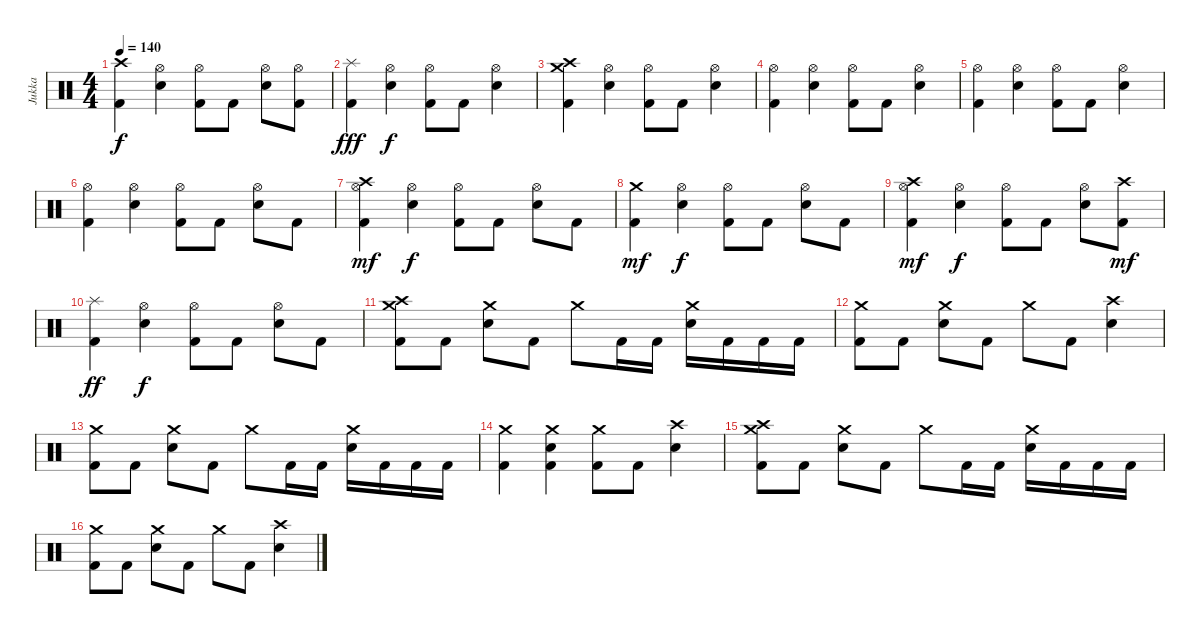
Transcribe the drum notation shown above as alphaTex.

\track ("Jukka" "Jukka") {instrument percussion}
\staff {score}
\articulation defaults
\ts (4 4)
\tempo 140
\clef neutral
\ks aminor
("Crash high (hit)" "Kick (hit) 2").4{dy f} ("Hi-Hat (open)" "Electric Snare (hit)").4 ("Hi-Hat (open)" "Kick (hit) 2").8 "Kick (hit) 2".8 ("Hi-Hat (open)" "Electric Snare (hit)").8 ("Hi-Hat (open)" "Kick (hit) 2").8 |
("Splash (hit)" "Kick (hit) 2").4{dy fff} ("Hi-Hat (open)" "Electric Snare (hit)").4{dy f} ("Hi-Hat (open)" "Kick (hit) 2").8 "Kick (hit) 2".8 ("Hi-Hat (open)" "Electric Snare (hit)").4 |
("Crash medium (hit)" "Crash high (hit)" "Kick (hit) 2").4 ("Hi-Hat (open)" "Electric Snare (hit)").4 ("Hi-Hat (open)" "Kick (hit) 2").8 "Kick (hit) 2".8 ("Hi-Hat (open)" "Electric Snare (hit)").4 |
("Hi-Hat (open)" "Kick (hit) 2").4 ("Hi-Hat (open)" "Electric Snare (hit)").4 ("Hi-Hat (open)" "Kick (hit) 2").8 "Kick (hit) 2".8 ("Hi-Hat (open)" "Electric Snare (hit)").4 |
("Hi-Hat (open)" "Kick (hit) 2").4 ("Hi-Hat (open)" "Electric Snare (hit)").4 ("Hi-Hat (open)" "Kick (hit) 2").8 "Kick (hit) 2".8 ("Hi-Hat (open)" "Electric Snare (hit)").4 |
("Hi-Hat (open)" "Kick (hit) 2").4 ("Hi-Hat (open)" "Electric Snare (hit)").4 ("Hi-Hat (open)" "Kick (hit) 2").8 "Kick (hit) 2".8 ("Hi-Hat (open)" "Electric Snare (hit)").8 "Kick (hit) 2".8 |
("Crash high (hit)" "Hi-Hat (open)" "Kick (hit) 2").4{dy mf} ("Hi-Hat (open)" "Electric Snare (hit)").4{dy f} ("Hi-Hat (open)" "Kick (hit) 2").8 "Kick (hit) 2".8 ("Hi-Hat (open)" "Electric Snare (hit)").8 "Kick (hit) 2".8 |
("Crash medium (hit)" "Kick (hit) 2").4{dy mf} ("Hi-Hat (open)" "Electric Snare (hit)").4{dy f} ("Hi-Hat (open)" "Kick (hit) 2").8 "Kick (hit) 2".8 ("Hi-Hat (open)" "Electric Snare (hit)").8 "Kick (hit) 2".8 |
("Crash high (hit)" "Hi-Hat (open)" "Kick (hit) 2").4{dy mf} ("Hi-Hat (open)" "Electric Snare (hit)").4{dy f} ("Hi-Hat (open)" "Kick (hit) 2").8 "Kick (hit) 2".8 ("Hi-Hat (open)" "Electric Snare (hit)").8 ("Crash high (hit)" "Kick (hit) 2").8{dy mf} |
("Splash (hit)" "Kick (hit) 2").4{dy ff} ("Hi-Hat (open)" "Electric Snare (hit)").4{dy f} ("Hi-Hat (open)" "Kick (hit) 2").8 "Kick (hit) 2".8 ("Hi-Hat (open)" "Electric Snare (hit)").8 "Kick (hit) 2".8 |
\ks c
("Crash high (hit)" "Crash medium (hit)" "Kick (hit) 2").8 "Kick (hit) 2".8 ("Crash medium (hit)" "Electric Snare (hit)").8 "Kick (hit) 2".8 "Crash medium (hit)".8 "Kick (hit) 2".16 "Kick (hit) 2".16 ("Crash medium (hit)" "Electric Snare (hit)").16 "Kick (hit) 2".16 "Kick (hit) 2".16 "Kick (hit) 2".16 |
("Crash medium (hit)" "Kick (hit) 2").8 "Kick (hit) 2".8 ("Crash medium (hit)" "Electric Snare (hit)").8 "Kick (hit) 2".8 "Crash medium (hit)".8 "Kick (hit) 2".8 ("Crash high (hit)" "Electric Snare (hit)").4 |
("Crash medium (hit)" "Kick (hit) 2").8 "Kick (hit) 2".8 ("Crash medium (hit)" "Electric Snare (hit)").8 "Kick (hit) 2".8 "Crash medium (hit)".8 "Kick (hit) 2".16 "Kick (hit) 2".16 ("Crash medium (hit)" "Electric Snare (hit)").16 "Kick (hit) 2".16 "Kick (hit) 2".16 "Kick (hit) 2".16 |
("Crash medium (hit)" "Kick (hit) 2").4 ("Crash medium (hit)" "Electric Snare (hit)" "Kick (hit) 2").4 ("Crash medium (hit)" "Kick (hit) 2").8 "Kick (hit) 2".8 ("Crash high (hit)" "Electric Snare (hit)").4 |
("Crash high (hit)" "Crash medium (hit)" "Kick (hit) 2").8 "Kick (hit) 2".8 ("Crash medium (hit)" "Electric Snare (hit)").8 "Kick (hit) 2".8 "Crash medium (hit)".8 "Kick (hit) 2".16 "Kick (hit) 2".16 ("Crash medium (hit)" "Electric Snare (hit)").16 "Kick (hit) 2".16 "Kick (hit) 2".16 "Kick (hit) 2".16 |
("Crash medium (hit)" "Kick (hit) 2").8 "Kick (hit) 2".8 ("Crash medium (hit)" "Electric Snare (hit)").8 "Kick (hit) 2".8 "Crash medium (hit)".8 "Kick (hit) 2".8 ("Crash high (hit)" "Electric Snare (hit)").4
